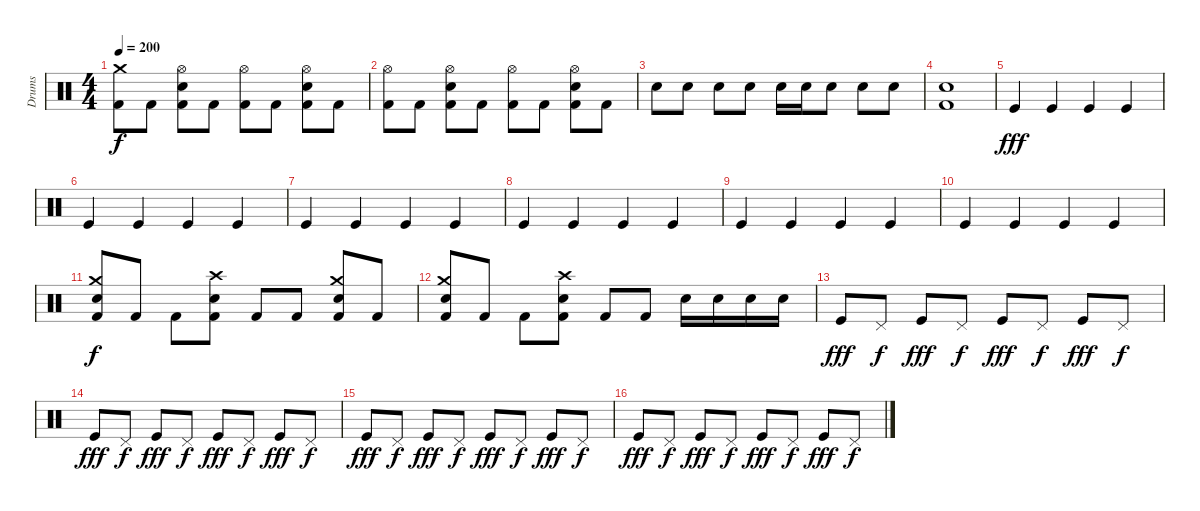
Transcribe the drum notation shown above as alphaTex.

\track ("Drums" "Drums") {instrument percussion}
\staff {score}
\articulation defaults
\ts (4 4)
\tempo 200
\clef neutral
\ks c
("Kick (hit) 2" "Crash medium (hit)").8{dy f} "Kick (hit) 2".8 ("Kick (hit) 2" "Electric Snare (hit)" "Hi-Hat (open)").8 "Kick (hit) 2".8 ("Kick (hit) 2" "Hi-Hat (open)").8 "Kick (hit) 2".8 ("Kick (hit) 2" "Electric Snare (hit)" "Hi-Hat (open)").8 "Kick (hit) 2".8 |
("Kick (hit) 2" "Hi-Hat (open)").8 "Kick (hit) 2".8 ("Kick (hit) 2" "Electric Snare (hit)" "Hi-Hat (open)").8 "Kick (hit) 2".8 ("Kick (hit) 2" "Hi-Hat (open)").8 "Kick (hit) 2".8 ("Kick (hit) 2" "Electric Snare (hit)" "Hi-Hat (open)").8 "Kick (hit) 2".8 |
"Electric Snare (hit)".8 "Electric Snare (hit)".8 "Electric Snare (hit)".8 "Electric Snare (hit)".8 "Electric Snare (hit)".16 "Electric Snare (hit)".16 "Electric Snare (hit)".8 "Electric Snare (hit)".8 "Electric Snare (hit)".8 |
("Kick (hit) 2" "Electric Snare (hit)").1 |
\section ("" "")
"Kick (hit)".4{dy fff} "Kick (hit)".4 "Kick (hit)".4 "Kick (hit)".4 |
"Kick (hit)".4 "Kick (hit)".4 "Kick (hit)".4 "Kick (hit)".4 |
"Kick (hit)".4 "Kick (hit)".4 "Kick (hit)".4 "Kick (hit)".4 |
"Kick (hit)".4 "Kick (hit)".4 "Kick (hit)".4 "Kick (hit)".4 |
"Kick (hit)".4 "Kick (hit)".4 "Kick (hit)".4 "Kick (hit)".4 |
"Kick (hit)".4 "Kick (hit)".4 "Kick (hit)".4 "Kick (hit)".4 |
("Kick (hit) 2" "Electric Snare (hit)" "Crash medium (hit)").8{dy f} "Kick (hit) 2".8 "Kick (hit) 2".8 ("Kick (hit) 2" "Electric Snare (hit)" "Crash high (hit)").8 "Kick (hit) 2".8 "Kick (hit) 2".8 ("Kick (hit) 2" "Electric Snare (hit)" "Crash medium (hit)").8 "Kick (hit) 2".8 |
("Kick (hit) 2" "Electric Snare (hit)" "Crash medium (hit)").8 "Kick (hit) 2".8 "Kick (hit) 2".8 ("Kick (hit) 2" "Electric Snare (hit)" "Crash high (hit)").8 "Kick (hit) 2".8 "Kick (hit) 2".8 "Electric Snare (hit)".16 "Electric Snare (hit)".16 "Electric Snare (hit)".16 "Electric Snare (hit)".16 |
"Kick (hit)".8{dy fff} "Pedal Hi-Hat (hit)".8{dy f} "Kick (hit)".8{dy fff} "Pedal Hi-Hat (hit)".8{dy f} "Kick (hit)".8{dy fff} "Pedal Hi-Hat (hit)".8{dy f} "Kick (hit)".8{dy fff} "Pedal Hi-Hat (hit)".8{dy f} |
"Kick (hit)".8{dy fff} "Pedal Hi-Hat (hit)".8{dy f} "Kick (hit)".8{dy fff} "Pedal Hi-Hat (hit)".8{dy f} "Kick (hit)".8{dy fff} "Pedal Hi-Hat (hit)".8{dy f} "Kick (hit)".8{dy fff} "Pedal Hi-Hat (hit)".8{dy f} |
"Kick (hit)".8{dy fff} "Pedal Hi-Hat (hit)".8{dy f} "Kick (hit)".8{dy fff} "Pedal Hi-Hat (hit)".8{dy f} "Kick (hit)".8{dy fff} "Pedal Hi-Hat (hit)".8{dy f} "Kick (hit)".8{dy fff} "Pedal Hi-Hat (hit)".8{dy f} |
"Kick (hit)".8{dy fff} "Pedal Hi-Hat (hit)".8{dy f} "Kick (hit)".8{dy fff} "Pedal Hi-Hat (hit)".8{dy f} "Kick (hit)".8{dy fff} "Pedal Hi-Hat (hit)".8{dy f} "Kick (hit)".8{dy fff} "Pedal Hi-Hat (hit)".8{dy f}
